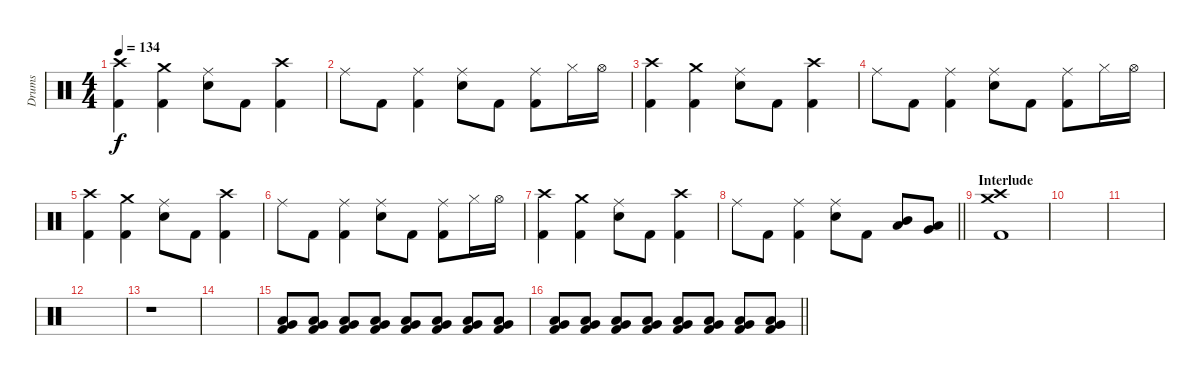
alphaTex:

\track ("Drums" "Drums") {instrument percussion}
\staff {score}
\articulation defaults
\ts (4 4)
\tempo 134
\clef neutral
\ks c
("Crash high (hit)" "Kick (hit) 2").4{dy f} ("Crash medium (hit)" "Kick (hit) 2").4 ("Ride (middle)" "Snare (hit) 2").8 "Kick (hit) 2".8 ("Crash high (hit)" "Kick (hit) 2").4 |
"Ride (middle)".8 "Kick (hit) 2".8 ("Ride (middle)" "Kick (hit) 2").4 ("Ride (middle)" "Snare (hit) 2").8 "Kick (hit) 2".8 ("Ride (middle)" "Kick (hit) 2").8 "Hi-Hat (closed)".16 "Hi-Hat (open)".16 |
("Crash high (hit)" "Kick (hit) 2").4 ("Crash medium (hit)" "Kick (hit) 2").4 ("Ride (middle)" "Snare (hit) 2").8 "Kick (hit) 2".8 ("Crash high (hit)" "Kick (hit) 2").4 |
"Ride (middle)".8 "Kick (hit) 2".8 ("Ride (middle)" "Kick (hit) 2").4 ("Ride (middle)" "Snare (hit) 2").8 "Kick (hit) 2".8 ("Ride (middle)" "Kick (hit) 2").8 "Hi-Hat (closed)".16 "Hi-Hat (open)".16 |
("Crash high (hit)" "Kick (hit) 2").4 ("Crash medium (hit)" "Kick (hit) 2").4 ("Ride (middle)" "Snare (hit) 2").8 "Kick (hit) 2".8 ("Crash high (hit)" "Kick (hit) 2").4 |
"Ride (middle)".8 "Kick (hit) 2".8 ("Ride (middle)" "Kick (hit) 2").4 ("Ride (middle)" "Snare (hit) 2").8 "Kick (hit) 2".8 ("Ride (middle)" "Kick (hit) 2").8 "Hi-Hat (closed)".16 "Hi-Hat (open)".16 |
("Crash high (hit)" "Kick (hit) 2").4 ("Crash medium (hit)" "Kick (hit) 2").4 ("Ride (middle)" "Snare (hit) 2").8 "Kick (hit) 2".8 ("Crash high (hit)" "Kick (hit) 2").4 |
\barLineRight lightlight "Ride (middle)".8 "Kick (hit) 2".8
("Ride (middle)" "Kick (hit) 2").4 ("Ride (middle)" "Snare (hit) 2").8 "Kick (hit) 2".8 ("Mid Tom (hit)" "Low Tom (hit)").8 ("Low Tom (hit)" "Very Low Tom (hit)").8 |
\section ("" "Interlude")
("Crash high (hit)" "Crash medium (hit)" "Kick (hit) 2").1 |
|
|
|
r.1 |
|
("Very Low Tom (hit)" "Low Floor Tom (hit)" "Kick (hit) 2").8{volume 12} ("Very Low Tom (hit)" "Low Floor Tom (hit)" "Kick (hit) 2").8 ("Very Low Tom (hit)" "Low Floor Tom (hit)" "Kick (hit) 2").8 ("Very Low Tom (hit)" "Low Floor Tom (hit)" "Kick (hit) 2").8 ("Very Low Tom (hit)" "Low Floor Tom (hit)" "Kick (hit) 2").8 ("Very Low Tom (hit)" "Low Floor Tom (hit)" "Kick (hit) 2").8 ("Very Low Tom (hit)" "Low Floor Tom (hit)" "Kick (hit) 2").8 ("Very Low Tom (hit)" "Low Floor Tom (hit)" "Kick (hit) 2").8 |
\barLineRight lightlight
("Very Low Tom (hit)" "Low Floor Tom (hit)" "Kick (hit) 2").8 ("Very Low Tom (hit)" "Low Floor Tom (hit)" "Kick (hit) 2").8 ("Very Low Tom (hit)" "Low Floor Tom (hit)" "Kick (hit) 2").8 ("Very Low Tom (hit)" "Low Floor Tom (hit)" "Kick (hit) 2").8 ("Very Low Tom (hit)" "Low Floor Tom (hit)" "Kick (hit) 2").8 ("Very Low Tom (hit)" "Low Floor Tom (hit)" "Kick (hit) 2").8 ("Very Low Tom (hit)" "Low Floor Tom (hit)" "Kick (hit) 2").8 ("Very Low Tom (hit)" "Low Floor Tom (hit)" "Kick (hit) 2").8
